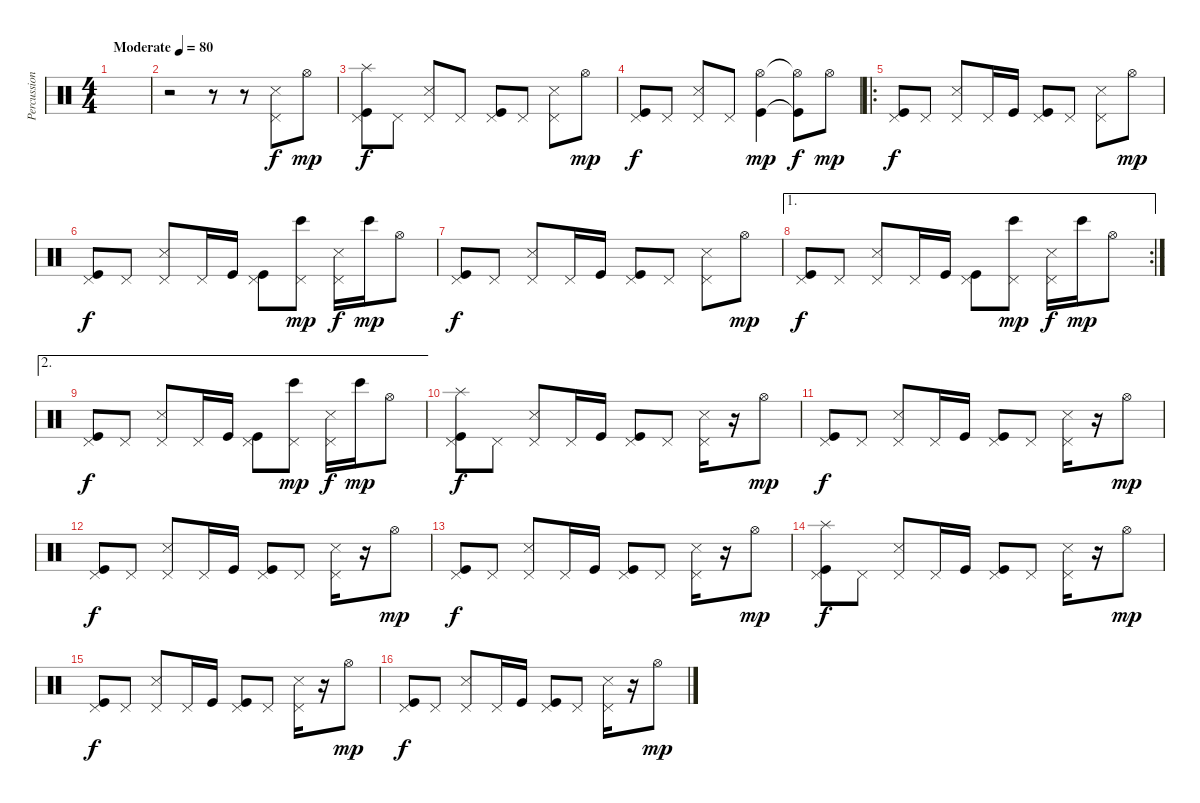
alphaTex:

\track ("Percussion" "Percussion") {instrument percussion}
\staff {score}
\articulation defaults
\ts (4 4)
\tempo (80 "Moderate")
\clef neutral
\ks c
|
r.2 r.8 r.8 ("Pedal Hi-Hat (hit)" "Metronome (hit)").8 "Hi-Hat (open)".8{dy mp} |
("Pedal Hi-Hat (hit)" "Kick (hit)" "Splash (hit)").8{dy f} "Pedal Hi-Hat (hit)".8 ("Pedal Hi-Hat (hit)" "Metronome (hit)").8 "Pedal Hi-Hat (hit)".8 ("Pedal Hi-Hat (hit)" "Kick (hit)").8 "Pedal Hi-Hat (hit)".8 ("Pedal Hi-Hat (hit)" "Metronome (hit)").8 "Hi-Hat (open)".8{dy mp} |
("Pedal Hi-Hat (hit)" "Kick (hit)").8{dy f} "Pedal Hi-Hat (hit)".8 ("Pedal Hi-Hat (hit)" "Metronome (hit)").8 "Pedal Hi-Hat (hit)".8 ("Hi-Hat (open)" "Kick (hit)").4{dy mp} ("Hi-Hat (open)"{t} "Kick (hit)"{t}).8{dy f} "Hi-Hat (open)".8{dy mp} |
\ro
("Pedal Hi-Hat (hit)" "Kick (hit)").8{dy f} "Pedal Hi-Hat (hit)".8 ("Pedal Hi-Hat (hit)" "Metronome (hit)").8 "Pedal Hi-Hat (hit)".16 "Kick (hit)".16 ("Pedal Hi-Hat (hit)" "Kick (hit)").8 "Pedal Hi-Hat (hit)".8 ("Pedal Hi-Hat (hit)" "Metronome (hit)").8 "Hi-Hat (open)".8{dy mp} |
("Pedal Hi-Hat (hit)" "Kick (hit)").8{dy f} "Pedal Hi-Hat (hit)".8 ("Pedal Hi-Hat (hit)" "Metronome (hit)").8 "Pedal Hi-Hat (hit)".16 "Kick (hit)".16 ("Pedal Hi-Hat (hit)" "Kick (hit)").8 ("Pedal Hi-Hat (hit)" "Bongo High (hit)").8{dy mp} ("Pedal Hi-Hat (hit)" "Metronome (hit)").16{dy f} "Bongo High (hit)".16{dy mp} "Hi-Hat (open)".8 |
("Pedal Hi-Hat (hit)" "Kick (hit)").8{dy f} "Pedal Hi-Hat (hit)".8 ("Pedal Hi-Hat (hit)" "Metronome (hit)").8 "Pedal Hi-Hat (hit)".16 "Kick (hit)".16 ("Pedal Hi-Hat (hit)" "Kick (hit)").8 "Pedal Hi-Hat (hit)".8 ("Pedal Hi-Hat (hit)" "Metronome (hit)").8 "Hi-Hat (open)".8{dy mp} |
\ae 1
\rc 2
("Pedal Hi-Hat (hit)" "Kick (hit)").8{dy f} "Pedal Hi-Hat (hit)".8 ("Pedal Hi-Hat (hit)" "Metronome (hit)").8 "Pedal Hi-Hat (hit)".16 "Kick (hit)".16 ("Pedal Hi-Hat (hit)" "Kick (hit)").8 ("Pedal Hi-Hat (hit)" "Bongo High (hit)").8{dy mp} ("Pedal Hi-Hat (hit)" "Metronome (hit)").16{dy f} "Bongo High (hit)".16{dy mp} "Hi-Hat (open)".8 |
\ae 2
("Pedal Hi-Hat (hit)" "Kick (hit)").8{dy f} "Pedal Hi-Hat (hit)".8 ("Pedal Hi-Hat (hit)" "Metronome (hit)").8 "Pedal Hi-Hat (hit)".16 "Kick (hit)".16 ("Pedal Hi-Hat (hit)" "Kick (hit)").8 ("Pedal Hi-Hat (hit)" "Bongo High (hit)").8{dy mp} ("Pedal Hi-Hat (hit)" "Metronome (hit)").16{dy f} "Bongo High (hit)".16{dy mp} "Hi-Hat (open)".8 |
("Pedal Hi-Hat (hit)" "Kick (hit)" "Splash (hit)").8{dy f} "Pedal Hi-Hat (hit)".8 ("Pedal Hi-Hat (hit)" "Metronome (hit)").8 "Pedal Hi-Hat (hit)".16 "Kick (hit)".16 ("Pedal Hi-Hat (hit)" "Kick (hit)").8 "Pedal Hi-Hat (hit)".8 ("Pedal Hi-Hat (hit)" "Metronome (hit)").16 r.16 "Hi-Hat (open)".8{dy mp} |
("Pedal Hi-Hat (hit)" "Kick (hit)").8{dy f} "Pedal Hi-Hat (hit)".8 ("Pedal Hi-Hat (hit)" "Metronome (hit)").8 "Pedal Hi-Hat (hit)".16 "Kick (hit)".16 ("Pedal Hi-Hat (hit)" "Kick (hit)").8 "Pedal Hi-Hat (hit)".8 ("Pedal Hi-Hat (hit)" "Metronome (hit)").16 r.16 "Hi-Hat (open)".8{dy mp} |
("Pedal Hi-Hat (hit)" "Kick (hit)").8{dy f} "Pedal Hi-Hat (hit)".8 ("Pedal Hi-Hat (hit)" "Metronome (hit)").8 "Pedal Hi-Hat (hit)".16 "Kick (hit)".16 ("Pedal Hi-Hat (hit)" "Kick (hit)").8 "Pedal Hi-Hat (hit)".8 ("Pedal Hi-Hat (hit)" "Metronome (hit)").16 r.16 "Hi-Hat (open)".8{dy mp} |
("Pedal Hi-Hat (hit)" "Kick (hit)").8{dy f} "Pedal Hi-Hat (hit)".8 ("Pedal Hi-Hat (hit)" "Metronome (hit)").8 "Pedal Hi-Hat (hit)".16 "Kick (hit)".16 ("Pedal Hi-Hat (hit)" "Kick (hit)").8 "Pedal Hi-Hat (hit)".8 ("Pedal Hi-Hat (hit)" "Metronome (hit)").16 r.16 "Hi-Hat (open)".8{dy mp} |
("Pedal Hi-Hat (hit)" "Kick (hit)" "Splash (hit)").8{dy f} "Pedal Hi-Hat (hit)".8 ("Pedal Hi-Hat (hit)" "Metronome (hit)").8 "Pedal Hi-Hat (hit)".16 "Kick (hit)".16 ("Pedal Hi-Hat (hit)" "Kick (hit)").8 "Pedal Hi-Hat (hit)".8 ("Pedal Hi-Hat (hit)" "Metronome (hit)").16 r.16 "Hi-Hat (open)".8{dy mp} |
("Pedal Hi-Hat (hit)" "Kick (hit)").8{dy f} "Pedal Hi-Hat (hit)".8 ("Pedal Hi-Hat (hit)" "Metronome (hit)").8 "Pedal Hi-Hat (hit)".16 "Kick (hit)".16 ("Pedal Hi-Hat (hit)" "Kick (hit)").8 "Pedal Hi-Hat (hit)".8 ("Pedal Hi-Hat (hit)" "Metronome (hit)").16 r.16 "Hi-Hat (open)".8{dy mp} |
("Pedal Hi-Hat (hit)" "Kick (hit)").8{dy f} "Pedal Hi-Hat (hit)".8 ("Pedal Hi-Hat (hit)" "Metronome (hit)").8 "Pedal Hi-Hat (hit)".16 "Kick (hit)".16 ("Pedal Hi-Hat (hit)" "Kick (hit)").8 "Pedal Hi-Hat (hit)".8 ("Pedal Hi-Hat (hit)" "Metronome (hit)").16 r.16 "Hi-Hat (open)".8{dy mp}
